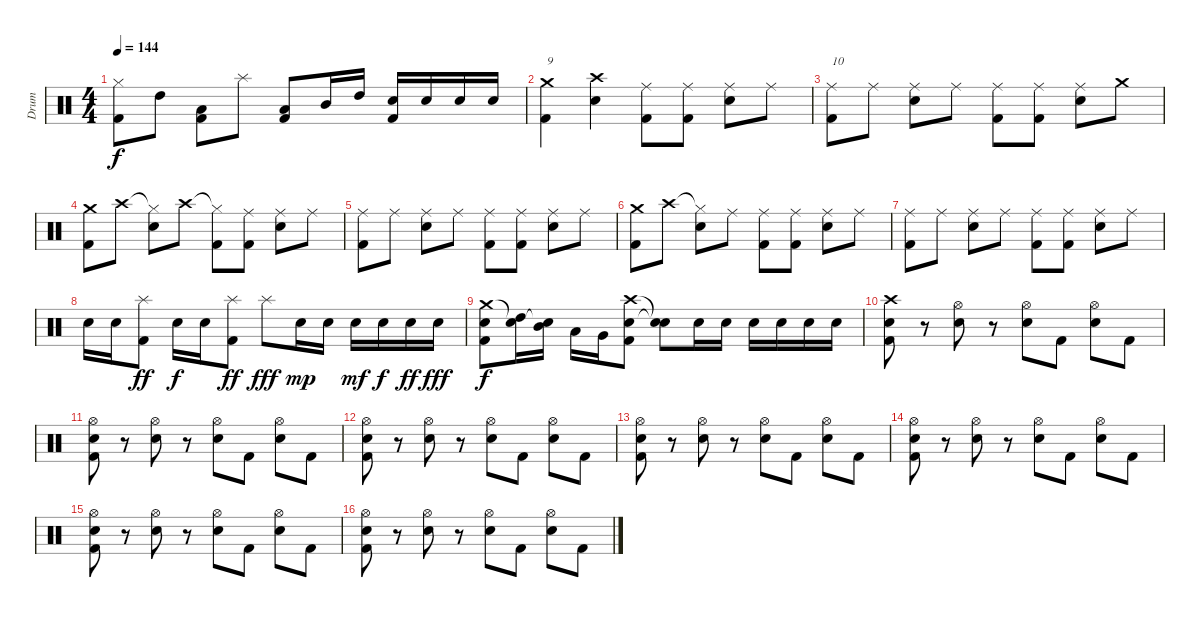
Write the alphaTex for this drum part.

\track ("Drum" "Drum") {instrument percussion}
\staff {score}
\articulation defaults
\ts (4 4)
\tempo 144
\clef neutral
\ks c
("Hi-Hat (closed)" "Kick (hit) 2").8{dy f} "High Tom (hit)".8 ("Low Tom (hit)" "Kick (hit) 2").8 "Splash (hit)".8 ("Low Tom (hit)" "Kick (hit) 2").8 "Mid Tom (hit)".16 "High Tom (hit)".16 ("Electric Snare (hit)" "Kick (hit) 2").16 "Electric Snare (hit)".16 "Electric Snare (hit)".16 "Electric Snare (hit)".16 |
("Crash medium (hit)" "Kick (hit) 2").4{txt "9"} ("Crash high (hit)" "Electric Snare (hit)").4 ("Ride (middle)" "Kick (hit) 2").8 ("Ride (middle)" "Kick (hit) 2").8 ("Ride (middle)" "Electric Snare (hit)").8 "Ride (middle)".8 |
("Ride (middle)" "Kick (hit) 2").8{txt "10"} "Ride (middle)".8 ("Ride (middle)" "Electric Snare (hit)").8 "Ride (middle)".8 ("Ride (middle)" "Kick (hit) 2").8 ("Ride (middle)" "Kick (hit) 2").8 ("Ride (middle)" "Electric Snare (hit)").8 "Crash medium (hit)".8 |
("Crash medium (hit)" "Kick (hit) 2").8 "Crash high (hit)".8 ("Hi-Hat (closed)"{t} "Electric Snare (hit)").8 "Crash high (hit)".8 ("Hi-Hat (closed)"{t} "Kick (hit) 2").8 ("Ride (middle)" "Kick (hit) 2").8 ("Ride (middle)" "Electric Snare (hit)").8 "Ride (middle)".8 |
("Ride (middle)" "Kick (hit) 2").8 "Ride (middle)".8 ("Ride (middle)" "Electric Snare (hit)").8 "Ride (middle)".8 ("Ride (middle)" "Kick (hit) 2").8 ("Ride (middle)" "Kick (hit) 2").8 ("Ride (middle)" "Electric Snare (hit)").8 "Ride (middle)".8 |
("Crash medium (hit)" "Kick (hit) 2").8 "Crash high (hit)".8 ("Hi-Hat (closed)"{t} "Electric Snare (hit)").8 "Ride (middle)".8 ("Ride (middle)" "Kick (hit) 2").8 ("Ride (middle)" "Kick (hit) 2").8 ("Ride (middle)" "Electric Snare (hit)").8 "Ride (middle)".8 |
("Ride (middle)" "Kick (hit) 2").8 "Ride (middle)".8 ("Ride (middle)" "Electric Snare (hit)").8 "Ride (middle)".8 ("Ride (middle)" "Kick (hit) 2").8 ("Ride (middle)" "Kick (hit) 2").8 ("Ride (middle)" "Electric Snare (hit)").8 "Ride (middle)".8 |
"Electric Snare (hit)".16 "Electric Snare (hit)".16 ("Splash (hit)" "Kick (hit) 2").8{dy ff} "Electric Snare (hit)".16{dy f} "Electric Snare (hit)".16 ("Splash (hit)" "Kick (hit) 2").8{dy ff} "Splash (hit)".8{dy fff} "Electric Snare (hit)".16{dy mp} "Electric Snare (hit)".16 "Electric Snare (hit)".16{dy mf} "Electric Snare (hit)".16{dy f} "Electric Snare (hit)".16{dy ff} "Electric Snare (hit)".16{dy fff} |
("Crash medium (hit)" "Electric Snare (hit)" "Kick (hit) 2").8{dy f} ("Snare (hit)"{t} "High Tom (hit)").16 ("Snare (hit)"{t} "Mid Tom (hit)").16 "Low Tom (hit)".16 "Very Low Tom (hit)".16 ("Crash high (hit)" "Electric Snare (hit)" "Kick (hit) 2").8 ("Snare (hit)"{t} "Snare (hit)"{t}).8 "Electric Snare (hit)".16 "Electric Snare (hit)".16 "Electric Snare (hit)".16 "Electric Snare (hit)".16 "Electric Snare (hit)".16 "Electric Snare (hit)".16 |
("Crash high (hit)" "Electric Snare (hit)" "Kick (hit) 2").8 r.8 ("Hi-Hat (open)" "Electric Snare (hit)").8 r.8 ("Hi-Hat (open)" "Electric Snare (hit)").8 "Kick (hit) 2".8 ("Hi-Hat (open)" "Electric Snare (hit)").8 "Kick (hit) 2".8 |
("Hi-Hat (open)" "Electric Snare (hit)" "Kick (hit) 2").8 r.8 ("Hi-Hat (open)" "Electric Snare (hit)").8 r.8 ("Hi-Hat (open)" "Electric Snare (hit)").8 "Kick (hit) 2".8 ("Hi-Hat (open)" "Electric Snare (hit)").8 "Kick (hit) 2".8 |
("Hi-Hat (open)" "Electric Snare (hit)" "Kick (hit) 2").8 r.8 ("Hi-Hat (open)" "Electric Snare (hit)").8 r.8 ("Hi-Hat (open)" "Electric Snare (hit)").8 "Kick (hit) 2".8 ("Hi-Hat (open)" "Electric Snare (hit)").8 "Kick (hit) 2".8 |
("Hi-Hat (open)" "Electric Snare (hit)" "Kick (hit) 2").8 r.8 ("Hi-Hat (open)" "Electric Snare (hit)").8 r.8 ("Hi-Hat (open)" "Electric Snare (hit)").8 "Kick (hit) 2".8 ("Hi-Hat (open)" "Electric Snare (hit)").8 "Kick (hit) 2".8 |
("Hi-Hat (open)" "Electric Snare (hit)" "Kick (hit) 2").8 r.8 ("Hi-Hat (open)" "Electric Snare (hit)").8 r.8 ("Hi-Hat (open)" "Electric Snare (hit)").8 "Kick (hit) 2".8 ("Hi-Hat (open)" "Electric Snare (hit)").8 "Kick (hit) 2".8 |
("Hi-Hat (open)" "Electric Snare (hit)" "Kick (hit) 2").8 r.8 ("Hi-Hat (open)" "Electric Snare (hit)").8 r.8 ("Hi-Hat (open)" "Electric Snare (hit)").8 "Kick (hit) 2".8 ("Hi-Hat (open)" "Electric Snare (hit)").8 "Kick (hit) 2".8 |
("Hi-Hat (open)" "Electric Snare (hit)" "Kick (hit) 2").8 r.8 ("Hi-Hat (open)" "Electric Snare (hit)").8 r.8 ("Hi-Hat (open)" "Electric Snare (hit)").8 "Kick (hit) 2".8 ("Hi-Hat (open)" "Electric Snare (hit)").8 "Kick (hit) 2".8
